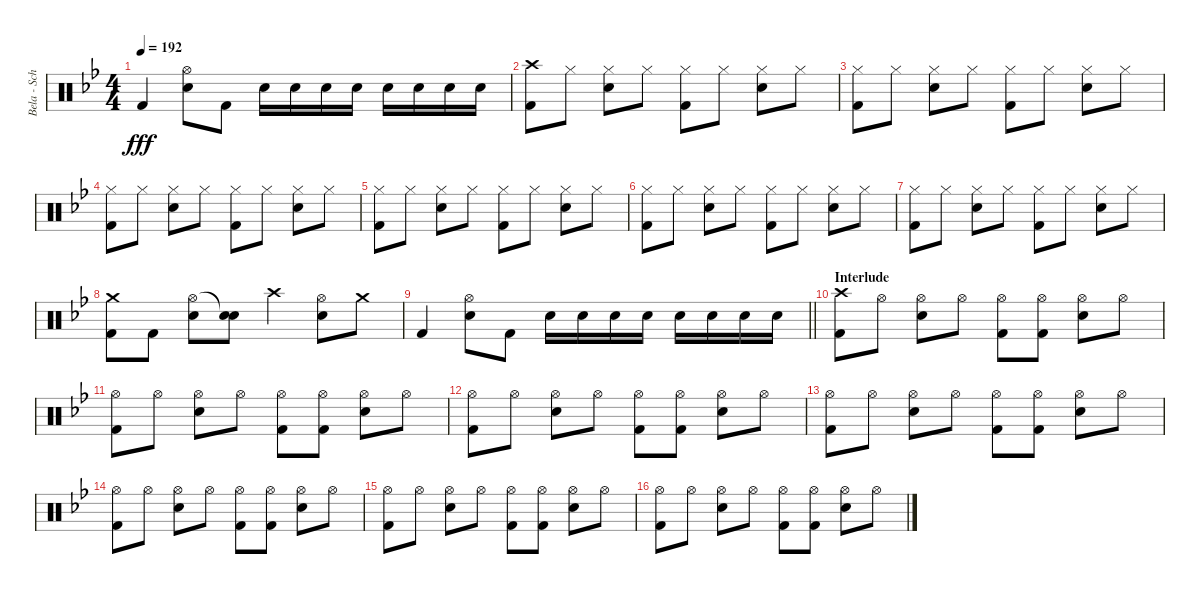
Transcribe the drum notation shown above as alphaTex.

\track ("Bela - Schlagzeug" "Bela - Sch") {instrument percussion}
\staff {score}
\articulation defaults
\ts (4 4)
\tempo 192
\clef neutral
\ks bb "Kick (hit) 2".4{dy fff}
("Hi-Hat (open)" "Snare (hit) 2").8 "Kick (hit) 2".8 "Snare (hit) 2".16 "Snare (hit) 2".16 "Snare (hit) 2".16 "Snare (hit) 2".16 "Snare (hit) 2".16 "Snare (hit) 2".16 "Snare (hit) 2".16 "Snare (hit) 2".16 |
("Crash high (hit)" "Kick (hit) 2").8 "Hi-Hat (closed)".8 ("Hi-Hat (closed)" "Snare (hit) 2").8 "Hi-Hat (closed)".8 ("Hi-Hat (closed)" "Kick (hit) 2").8 "Hi-Hat (closed)".8 ("Hi-Hat (closed)" "Snare (hit) 2").8 "Hi-Hat (closed)".8 |
("Hi-Hat (closed)" "Kick (hit) 2").8 "Hi-Hat (closed)".8 ("Hi-Hat (closed)" "Snare (hit) 2").8 "Hi-Hat (closed)".8 ("Hi-Hat (closed)" "Kick (hit) 2").8 "Hi-Hat (closed)".8 ("Hi-Hat (closed)" "Snare (hit) 2").8 "Hi-Hat (closed)".8 |
("Hi-Hat (closed)" "Kick (hit) 2").8 "Hi-Hat (closed)".8 ("Hi-Hat (closed)" "Snare (hit) 2").8 "Hi-Hat (closed)".8 ("Hi-Hat (closed)" "Kick (hit) 2").8 "Hi-Hat (closed)".8 ("Hi-Hat (closed)" "Snare (hit) 2").8 "Hi-Hat (closed)".8 |
("Hi-Hat (closed)" "Kick (hit) 2").8 "Hi-Hat (closed)".8 ("Hi-Hat (closed)" "Snare (hit) 2").8 "Hi-Hat (closed)".8 ("Hi-Hat (closed)" "Kick (hit) 2").8 "Hi-Hat (closed)".8 ("Hi-Hat (closed)" "Snare (hit) 2").8 "Hi-Hat (closed)".8 |
("Hi-Hat (closed)" "Kick (hit) 2").8 "Hi-Hat (closed)".8 ("Hi-Hat (closed)" "Snare (hit) 2").8 "Hi-Hat (closed)".8 ("Hi-Hat (closed)" "Kick (hit) 2").8 "Hi-Hat (closed)".8 ("Hi-Hat (closed)" "Snare (hit) 2").8 "Hi-Hat (closed)".8 |
("Hi-Hat (closed)" "Kick (hit) 2").8 "Hi-Hat (closed)".8 ("Hi-Hat (closed)" "Snare (hit) 2").8 "Hi-Hat (closed)".8 ("Hi-Hat (closed)" "Kick (hit) 2").8 "Hi-Hat (closed)".8 ("Hi-Hat (closed)" "Snare (hit) 2").8 "Hi-Hat (closed)".8 |
("Crash medium (hit)" "Kick (hit) 2").8 "Kick (hit) 2".8 ("Hi-Hat (open)" "Snare (hit) 2").8 ("Snare (hit)"{t} "Snare (hit) 2").8 "Crash high (hit)".4 ("Hi-Hat (open)" "Snare (hit) 2").8 "Crash medium (hit)".8 |
\barLineRight lightlight "Kick (hit) 2".4
("Hi-Hat (open)" "Snare (hit) 2").8 "Kick (hit) 2".8 "Snare (hit) 2".16 "Snare (hit) 2".16 "Snare (hit) 2".16 "Snare (hit) 2".16 "Snare (hit) 2".16 "Snare (hit) 2".16 "Snare (hit) 2".16 "Snare (hit) 2".16 |
\section ("" "Interlude")
("Crash high (hit)" "Kick (hit) 2").8 "Hi-Hat (open)".8 ("Hi-Hat (open)" "Snare (hit) 2").8 "Hi-Hat (open)".8 ("Hi-Hat (open)" "Kick (hit) 2").8 ("Hi-Hat (open)" "Kick (hit) 2").8 ("Hi-Hat (open)" "Snare (hit) 2").8 "Hi-Hat (open)".8 |
("Hi-Hat (open)" "Kick (hit) 2").8 "Hi-Hat (open)".8 ("Hi-Hat (open)" "Snare (hit) 2").8 "Hi-Hat (open)".8 ("Hi-Hat (open)" "Kick (hit) 2").8 ("Hi-Hat (open)" "Kick (hit) 2").8 ("Hi-Hat (open)" "Snare (hit) 2").8 "Hi-Hat (open)".8 |
("Hi-Hat (open)" "Kick (hit) 2").8 "Hi-Hat (open)".8 ("Hi-Hat (open)" "Snare (hit) 2").8 "Hi-Hat (open)".8 ("Hi-Hat (open)" "Kick (hit) 2").8 ("Hi-Hat (open)" "Kick (hit) 2").8 ("Hi-Hat (open)" "Snare (hit) 2").8 "Hi-Hat (open)".8 |
("Hi-Hat (open)" "Kick (hit) 2").8 "Hi-Hat (open)".8 ("Hi-Hat (open)" "Snare (hit) 2").8 "Hi-Hat (open)".8 ("Hi-Hat (open)" "Kick (hit) 2").8 ("Hi-Hat (open)" "Kick (hit) 2").8 ("Hi-Hat (open)" "Snare (hit) 2").8 "Hi-Hat (open)".8 |
("Hi-Hat (open)" "Kick (hit) 2").8 "Hi-Hat (open)".8 ("Hi-Hat (open)" "Snare (hit) 2").8 "Hi-Hat (open)".8 ("Hi-Hat (open)" "Kick (hit) 2").8 ("Hi-Hat (open)" "Kick (hit) 2").8 ("Hi-Hat (open)" "Snare (hit) 2").8 "Hi-Hat (open)".8 |
("Hi-Hat (open)" "Kick (hit) 2").8 "Hi-Hat (open)".8 ("Hi-Hat (open)" "Snare (hit) 2").8 "Hi-Hat (open)".8 ("Hi-Hat (open)" "Kick (hit) 2").8 ("Hi-Hat (open)" "Kick (hit) 2").8 ("Hi-Hat (open)" "Snare (hit) 2").8 "Hi-Hat (open)".8 |
("Hi-Hat (open)" "Kick (hit) 2").8 "Hi-Hat (open)".8 ("Hi-Hat (open)" "Snare (hit) 2").8 "Hi-Hat (open)".8 ("Hi-Hat (open)" "Kick (hit) 2").8 ("Hi-Hat (open)" "Kick (hit) 2").8 ("Hi-Hat (open)" "Snare (hit) 2").8 "Hi-Hat (open)".8
